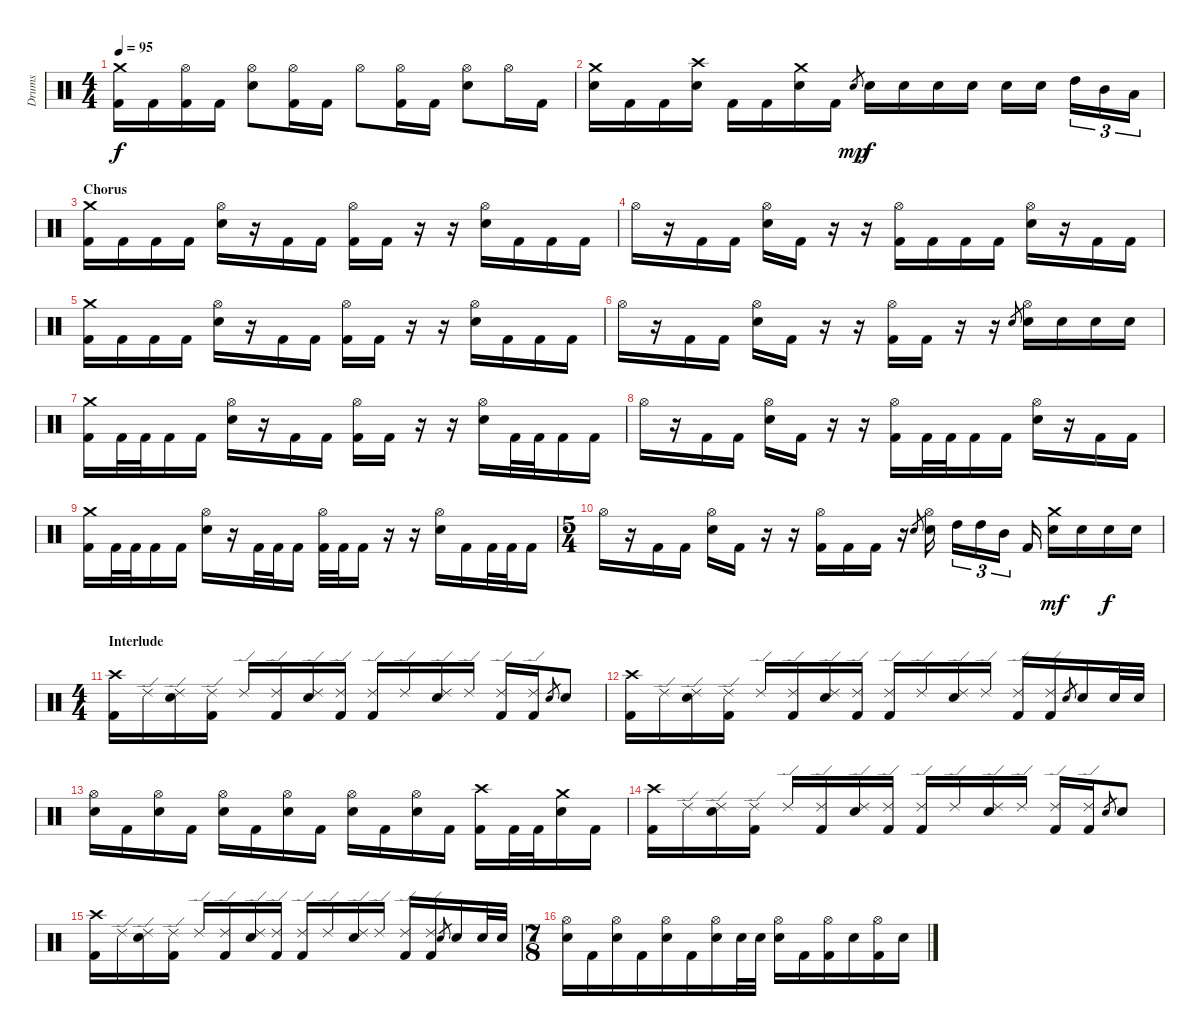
\track ("Drums" "Drums") {instrument percussion}
\staff {score}
\articulation defaults
\ts (4 4)
\tempo 95
\clef neutral
\ks c
("Crash medium (hit)" "Kick (hit) 2").16{dy f} "Kick (hit) 2".16 ("Hi-Hat (open)" "Kick (hit) 2").16 "Kick (hit) 2".16 ("Hi-Hat (open)" "Snare (hit) 2").8 ("Hi-Hat (open)" "Kick (hit) 2").16 "Kick (hit) 2".16 "Hi-Hat (open)".8 ("Hi-Hat (open)" "Kick (hit) 2").16 "Kick (hit) 2".16 ("Hi-Hat (open)" "Snare (hit) 2").8 "Hi-Hat (open)".16 "Kick (hit) 2".16 |
("Crash medium (hit)" "Snare (hit) 2").16 "Kick (hit) 2".16 "Kick (hit) 2".16 ("Crash high (hit)" "Snare (hit) 2").16 "Kick (hit) 2".16 "Kick (hit) 2".16 ("Crash medium (hit)" "Snare (hit) 2").16 "Kick (hit) 2".16 "Snare (hit) 2".8{gr dy mp} "Snare (hit) 2".16{dy f} "Snare (hit) 2".16 "Snare (hit) 2".16 "Snare (hit) 2".16 "Snare (hit) 2".16 "Snare (hit) 2".16 "High Tom (hit)".16{tu (3 2)} "Mid Tom (hit)".16{tu (3 2)} "Low Tom (hit)".16{tu (3 2)} |
\section ("" "Chorus")
("Crash medium (hit)" "Kick (hit) 2").16 "Kick (hit) 2".16 "Kick (hit) 2".16 "Kick (hit) 2".16 ("Hi-Hat (open)" "Snare (hit) 2").16 r.16 "Kick (hit) 2".16 "Kick (hit) 2".16 ("Hi-Hat (open)" "Kick (hit) 2").16 "Kick (hit) 2".16 r.16 r.16 ("Hi-Hat (open)" "Snare (hit) 2").16 "Kick (hit) 2".16 "Kick (hit) 2".16 "Kick (hit) 2".16 |
"Hi-Hat (open)".16 r.16 "Kick (hit) 2".16 "Kick (hit) 2".16 ("Hi-Hat (open)" "Snare (hit) 2").16 "Kick (hit) 2".16 r.16 r.16 ("Hi-Hat (open)" "Kick (hit) 2").16 "Kick (hit) 2".16 "Kick (hit) 2".16 "Kick (hit) 2".16 ("Hi-Hat (open)" "Snare (hit) 2").16 r.16 "Kick (hit) 2".16 "Kick (hit) 2".16 |
("Crash medium (hit)" "Kick (hit) 2").16 "Kick (hit) 2".16 "Kick (hit) 2".16 "Kick (hit) 2".16 ("Hi-Hat (open)" "Snare (hit) 2").16 r.16 "Kick (hit) 2".16 "Kick (hit) 2".16 ("Hi-Hat (open)" "Kick (hit) 2").16 "Kick (hit) 2".16 r.16 r.16 ("Hi-Hat (open)" "Snare (hit) 2").16 "Kick (hit) 2".16 "Kick (hit) 2".16 "Kick (hit) 2".16 |
"Hi-Hat (open)".16 r.16 "Kick (hit) 2".16 "Kick (hit) 2".16 ("Hi-Hat (open)" "Snare (hit) 2").16 "Kick (hit) 2".16 r.16 r.16 ("Hi-Hat (open)" "Kick (hit) 2").16 "Kick (hit) 2".16 r.16 r.16 "Snare (hit) 2".8{gr} ("Hi-Hat (open)" "Snare (hit) 2").16 "Snare (hit) 2".16 "Snare (hit) 2".16 "Snare (hit) 2".16 |
("Crash medium (hit)" "Kick (hit) 2").16 "Kick (hit) 2".32 "Kick (hit) 2".32 "Kick (hit) 2".16 "Kick (hit) 2".16 ("Hi-Hat (open)" "Snare (hit) 2").16 r.16 "Kick (hit) 2".16 "Kick (hit) 2".16 ("Hi-Hat (open)" "Kick (hit) 2").16 "Kick (hit) 2".16 r.16 r.16 ("Hi-Hat (open)" "Snare (hit) 2").16 "Kick (hit) 2".32 "Kick (hit) 2".32 "Kick (hit) 2".16 "Kick (hit) 2".16 |
"Hi-Hat (open)".16 r.16 "Kick (hit) 2".16 "Kick (hit) 2".16 ("Hi-Hat (open)" "Snare (hit) 2").16 "Kick (hit) 2".16 r.16 r.16 ("Hi-Hat (open)" "Kick (hit) 2").16 "Kick (hit) 2".32 "Kick (hit) 2".32 "Kick (hit) 2".16 "Kick (hit) 2".16 ("Hi-Hat (open)" "Snare (hit) 2").16 r.16 "Kick (hit) 2".16 "Kick (hit) 2".16 |
("Crash medium (hit)" "Kick (hit) 2").16 "Kick (hit) 2".32 "Kick (hit) 2".32 "Kick (hit) 2".16 "Kick (hit) 2".16 ("Hi-Hat (open)" "Snare (hit) 2").16 r.16 "Kick (hit) 2".32 "Kick (hit) 2".32 "Kick (hit) 2".16 ("Hi-Hat (open)" "Kick (hit) 2").32 "Kick (hit) 2".32 "Kick (hit) 2".16 r.16 r.16 ("Hi-Hat (open)" "Snare (hit) 2").16 "Kick (hit) 2".16 "Kick (hit) 2".32 "Kick (hit) 2".32 "Kick (hit) 2".16 |
\ts (5 4)
"Hi-Hat (open)".16 r.16 "Kick (hit) 2".16 "Kick (hit) 2".16 ("Hi-Hat (open)" "Snare (hit) 2").16 "Kick (hit) 2".16 r.16 r.16 ("Hi-Hat (open)" "Kick (hit) 2").16 "Kick (hit) 2".16 "Kick (hit) 2".16 r.16 "Snare (hit) 2".8{gr} ("Hi-Hat (open)" "Snare (hit) 2").16 "High Tom (hit)".16{tu (3 2)} "High Tom (hit)".16{tu (3 2)} "Mid Tom (hit)".16{tu (3 2)} "Kick (hit) 2".16 ("Crash medium (hit)" "Snare (hit) 2").16{dy mf} "Snare (hit) 2".16 "Snare (hit) 2".16{dy f} "Snare (hit) 2".16 |
\ts (4 4)
\section ("" "Interlude")
("Crash high (hit)" "Kick (hit) 2").16 "Ride (edge) 2".16 ("Ride (edge) 2" "Snare (hit) 2").16 ("Ride (edge) 2" "Kick (hit) 2").16 "Ride (edge) 2".16 ("Ride (edge) 2" "Kick (hit) 2").16 ("Ride (edge) 2" "Snare (hit) 2").16 ("Ride (edge) 2" "Kick (hit) 2").16 ("Ride (edge) 2" "Kick (hit) 2").16 "Ride (edge) 2".16 ("Ride (edge) 2" "Snare (hit) 2").16 "Ride (edge) 2".16 ("Ride (edge) 2" "Kick (hit) 2").16 ("Ride (edge) 2" "Kick (hit) 2").16 "Snare (hit) 2".8{gr} "Snare (hit) 2".8 |
("Crash high (hit)" "Kick (hit) 2").16 "Ride (edge) 2".16 ("Ride (edge) 2" "Snare (hit) 2").16 ("Ride (edge) 2" "Kick (hit) 2").16 "Ride (edge) 2".16 ("Ride (edge) 2" "Kick (hit) 2").16 ("Ride (edge) 2" "Snare (hit) 2").16 ("Ride (edge) 2" "Kick (hit) 2").16 ("Ride (edge) 2" "Kick (hit) 2").16 "Ride (edge) 2".16 ("Ride (edge) 2" "Snare (hit) 2").16 "Ride (edge) 2".16 ("Ride (edge) 2" "Kick (hit) 2").16 ("Ride (edge) 2" "Kick (hit) 2").16 "Snare (hit) 2".8{gr} "Snare (hit) 2".16 "Snare (hit) 2".32 "Snare (hit) 2".32 |
("Hi-Hat (open)" "Snare (hit) 2").16 "Kick (hit) 2".16 ("Hi-Hat (open)" "Snare (hit) 2").16 "Kick (hit) 2".16 ("Hi-Hat (open)" "Snare (hit) 2").16 "Kick (hit) 2".16 ("Hi-Hat (open)" "Snare (hit) 2").16 "Kick (hit) 2".16 ("Hi-Hat (open)" "Snare (hit) 2").16 "Kick (hit) 2".16 ("Hi-Hat (open)" "Snare (hit) 2").16 "Kick (hit) 2".16 ("Crash high (hit)" "Kick (hit) 2").16 "Kick (hit) 2".32 "Kick (hit) 2".32 ("Crash medium (hit)" "Snare (hit) 2").16 "Kick (hit) 2".16 |
("Crash high (hit)" "Kick (hit) 2").16 "Ride (edge) 2".16 ("Ride (edge) 2" "Snare (hit) 2").16 ("Ride (edge) 2" "Kick (hit) 2").16 "Ride (edge) 2".16 ("Ride (edge) 2" "Kick (hit) 2").16 ("Ride (edge) 2" "Snare (hit) 2").16 ("Ride (edge) 2" "Kick (hit) 2").16 ("Ride (edge) 2" "Kick (hit) 2").16 "Ride (edge) 2".16 ("Ride (edge) 2" "Snare (hit) 2").16 "Ride (edge) 2".16 ("Ride (edge) 2" "Kick (hit) 2").16 ("Ride (edge) 2" "Kick (hit) 2").16 "Snare (hit) 2".8{gr} "Snare (hit) 2".8 |
("Crash high (hit)" "Kick (hit) 2").16 "Ride (edge) 2".16 ("Ride (edge) 2" "Snare (hit) 2").16 ("Ride (edge) 2" "Kick (hit) 2").16 "Ride (edge) 2".16 ("Ride (edge) 2" "Kick (hit) 2").16 ("Ride (edge) 2" "Snare (hit) 2").16 ("Ride (edge) 2" "Kick (hit) 2").16 ("Ride (edge) 2" "Kick (hit) 2").16 "Ride (edge) 2".16 ("Ride (edge) 2" "Snare (hit) 2").16 "Ride (edge) 2".16 ("Ride (edge) 2" "Kick (hit) 2").16 ("Ride (edge) 2" "Kick (hit) 2").16 "Snare (hit) 2".8{gr} "Snare (hit) 2".16 "Snare (hit) 2".32 "Snare (hit) 2".32 |
\ts (7 8)
("Hi-Hat (open)" "Snare (hit) 2").16 "Kick (hit) 2".16 ("Hi-Hat (open)" "Snare (hit) 2").16 "Kick (hit) 2".16 ("Hi-Hat (open)" "Snare (hit) 2").16 "Kick (hit) 2".16 ("Hi-Hat (open)" "Snare (hit) 2").16 "Snare (hit) 2".32 "Snare (hit) 2".32 ("Hi-Hat (open)" "Snare (hit) 2").16 "Kick (hit) 2".16 ("Hi-Hat (open)" "Kick (hit) 2").16 "Snare (hit) 2".16 ("Hi-Hat (open)" "Kick (hit) 2").16 "Snare (hit) 2".16
